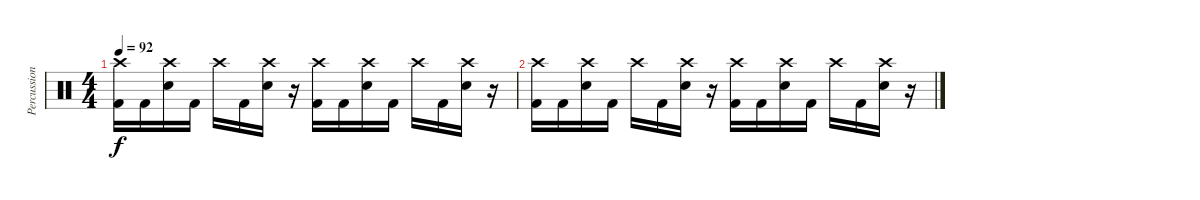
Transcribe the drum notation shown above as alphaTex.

\track ("Percussion" "Percussion") {instrument percussion}
\staff {score}
\articulation defaults
\ts (4 4)
\tempo 92
\clef neutral
\ks c
("Crash high (hit)" "Kick (hit) 2").16{dy f} "Kick (hit) 2".16 ("Crash high (hit)" "Snare (hit) 2").16 "Kick (hit) 2".16 "Crash high (hit)".16 "Kick (hit) 2".16 ("Crash high (hit)" "Snare (hit) 2").16 r.16 ("Crash high (hit)" "Kick (hit) 2").16 "Kick (hit) 2".16 ("Crash high (hit)" "Snare (hit) 2").16 "Kick (hit) 2".16 "Crash high (hit)".16 "Kick (hit) 2".16 ("Crash high (hit)" "Snare (hit) 2").16 r.16 |
("Crash high (hit)" "Kick (hit) 2").16 "Kick (hit) 2".16 ("Crash high (hit)" "Snare (hit) 2").16 "Kick (hit) 2".16 "Crash high (hit)".16 "Kick (hit) 2".16 ("Crash high (hit)" "Snare (hit) 2").16 r.16 ("Crash high (hit)" "Kick (hit) 2").16 "Kick (hit) 2".16 ("Crash high (hit)" "Snare (hit) 2").16 "Kick (hit) 2".16 "Crash high (hit)".16 "Kick (hit) 2".16 ("Crash high (hit)" "Snare (hit) 2").16 r.16
